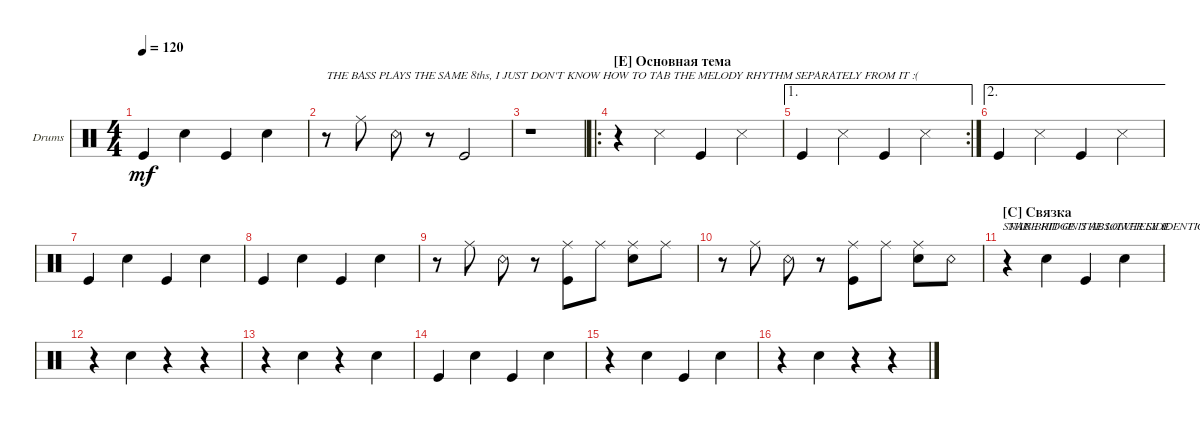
\defaultSystemsLayout 4
\bracketExtendMode groupsimilarinstruments
\firstSystemTrackNameOrientation horizontal
\otherSystemsTrackNameOrientation horizontal
\track ("Drumkit" "Drums") {instrument percussion}
\staff {score}
\articulation defaults
\ts (4 4)
\tempo 120
\clef neutral
\ks c "Kick (hit)".4{dy mf} "Snare (hit) 2".4 "Kick (hit)".4 "Snare (hit) 2".4
|
r.8{txt "THE BASS PLAYS THE SAME 8ths, I JUST DON'T KNOW HOW TO TAB THE MELODY RHYTHM SEPARATELY FROM IT :("} "Ride (middle)".8 "Snare (rim shot)".8 r.8 "Kick (hit)".2 |
r.1 |
\ro
\section ("E" "Основная тема")
r.4 "Snare (side stick) 3".4 "Kick (hit)".4 "Snare (side stick) 3".4 |
\ae 1
\rc 2 "Kick (hit)".4 "Snare (side stick) 3".4 "Kick (hit)".4 "Snare (side stick) 3".4
|
\ae 2 "Kick (hit)".4 "Snare (side stick) 3".4 "Kick (hit)".4 "Snare (side stick) 3".4
|
"Kick (hit)".4 "Snare (hit) 2".4 "Kick (hit)".4 "Snare (hit) 2".4 |
"Kick (hit)".4 "Snare (hit) 2".4 "Kick (hit)".4 "Snare (hit) 2".4 |
r.8 "Ride (middle)".8 "Snare (rim shot)".8 r.8 ("Kick (hit)" "Ride (middle)").8 "Ride (middle)".8 ("Snare (hit) 2" "Ride (middle)").8 "Ride (middle)".8 |
r.8 "Ride (middle)".8 "Snare (rim shot)".8 r.8 ("Kick (hit)" "Ride (middle)").8 "Ride (middle)".8{txt "                                       SNARE HIT ON THE LOWER SIDE"} ("Snare (hit) 2" "Ride (middle)").8 "Snare (rim shot)".8 |
\section ("C" "Связка")
r.4{txt "THIS BRIDGE IS ABSOLUTELY IDENTICAL TO THE FIRST BRIDGE "} "Snare (hit) 2".4 "Kick (hit)".4 "Snare (hit) 2".4 |
r.4 "Snare (hit) 2".4 r.4 r.4 |
r.4 "Snare (hit) 2".4 r.4 "Snare (hit) 2".4 |
"Kick (hit)".4 "Snare (hit) 2".4 "Kick (hit)".4 "Snare (hit) 2".4 |
r.4 "Snare (hit) 2".4 "Kick (hit)".4 "Snare (hit) 2".4 |
r.4 "Snare (hit) 2".4 r.4 r.4
